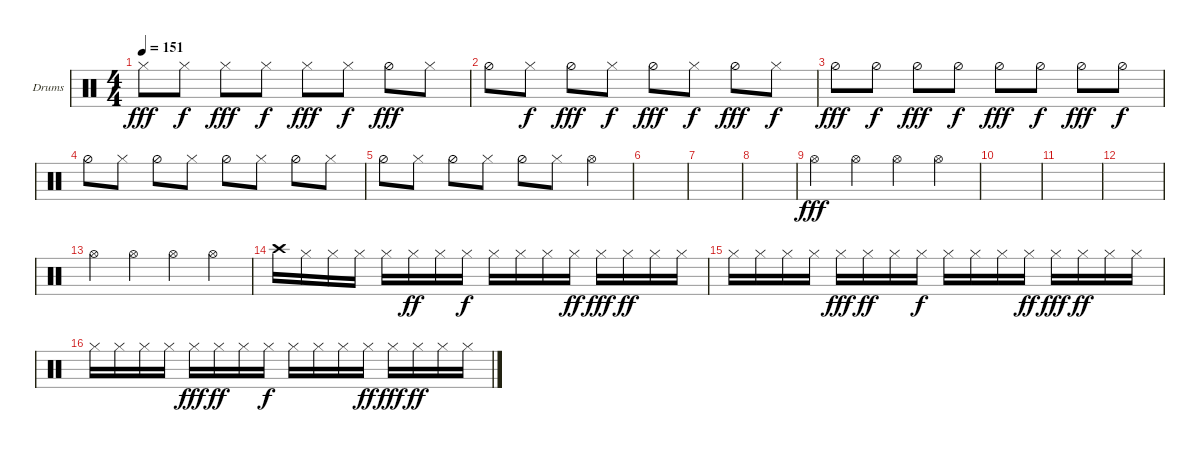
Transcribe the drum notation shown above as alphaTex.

\defaultSystemsLayout 4
\bracketExtendMode groupsimilarinstruments
\firstSystemTrackNameOrientation horizontal
\otherSystemsTrackNameOrientation horizontal
\track ("Helders" "Drums") {instrument percussion}
\staff {score}
\articulation defaults
\ts (4 4)
\tempo 151
\clef neutral
\ks c "Hi-Hat (closed)".8{dy fff} "Hi-Hat (closed)".8{dy f} "Hi-Hat (closed)".8{dy fff} "Hi-Hat (closed)".8{dy f} "Hi-Hat (closed)".8{dy fff} "Hi-Hat (closed)".8{dy f} "Hi-Hat (half)".8{dy fff} "Hi-Hat (closed)".8
|
"Hi-Hat (half)".8 "Hi-Hat (closed)".8{dy f} "Hi-Hat (half)".8{dy fff} "Hi-Hat (closed)".8{dy f} "Hi-Hat (half)".8{dy fff} "Hi-Hat (closed)".8{dy f} "Hi-Hat (half)".8{dy fff} "Hi-Hat (closed)".8{dy f} |
"Hi-Hat (half)".8{dy fff} "Hi-Hat (half)".8{dy f} "Hi-Hat (half)".8{dy fff} "Hi-Hat (half)".8{dy f} "Hi-Hat (half)".8{dy fff} "Hi-Hat (half)".8{dy f} "Hi-Hat (half)".8{dy fff} "Hi-Hat (half)".8{dy f} |
"Hi-Hat (half)".8 "Hi-Hat (closed)".8 "Hi-Hat (half)".8 "Hi-Hat (closed)".8 "Hi-Hat (half)".8 "Hi-Hat (closed)".8 "Hi-Hat (half)".8 "Hi-Hat (closed)".8 |
"Hi-Hat (half)".8 "Hi-Hat (closed)".8 "Hi-Hat (half)".8 "Hi-Hat (closed)".8 "Hi-Hat (half)".8 "Hi-Hat (closed)".8 "Hi-Hat (open)".4 |
|
|
|
"Hi-Hat (open)".4{dy fff} "Hi-Hat (open)".4 "Hi-Hat (open)".4 "Hi-Hat (open)".4 |
|
|
|
"Hi-Hat (open)".4 "Hi-Hat (open)".4 "Hi-Hat (open)".4 "Hi-Hat (open)".4 |
"Crash high (hit)".16 "Hi-Hat (closed)".16 "Hi-Hat (closed)".16 "Hi-Hat (closed)".16 "Hi-Hat (closed)".16 "Hi-Hat (closed)".16{dy ff} "Hi-Hat (closed)".16 "Hi-Hat (closed)".16{dy f} "Hi-Hat (closed)".16 "Hi-Hat (closed)".16 "Hi-Hat (closed)".16 "Hi-Hat (closed)".16{dy ff} "Hi-Hat (closed)".16{dy fff} "Hi-Hat (closed)".16{dy ff} "Hi-Hat (closed)".16 "Hi-Hat (closed)".16 |
"Hi-Hat (closed)".16 "Hi-Hat (closed)".16 "Hi-Hat (closed)".16 "Hi-Hat (closed)".16 "Hi-Hat (closed)".16{dy fff} "Hi-Hat (closed)".16{dy ff} "Hi-Hat (closed)".16 "Hi-Hat (closed)".16{dy f} "Hi-Hat (closed)".16 "Hi-Hat (closed)".16 "Hi-Hat (closed)".16 "Hi-Hat (closed)".16{dy ff} "Hi-Hat (closed)".16{dy fff} "Hi-Hat (closed)".16{dy ff} "Hi-Hat (closed)".16 "Hi-Hat (closed)".16 |
"Hi-Hat (closed)".16 "Hi-Hat (closed)".16 "Hi-Hat (closed)".16 "Hi-Hat (closed)".16 "Hi-Hat (closed)".16{dy fff} "Hi-Hat (closed)".16{dy ff} "Hi-Hat (closed)".16 "Hi-Hat (closed)".16{dy f} "Hi-Hat (closed)".16 "Hi-Hat (closed)".16 "Hi-Hat (closed)".16 "Hi-Hat (closed)".16{dy ff} "Hi-Hat (closed)".16{dy fff} "Hi-Hat (closed)".16{dy ff} "Hi-Hat (closed)".16 "Hi-Hat (closed)".16
